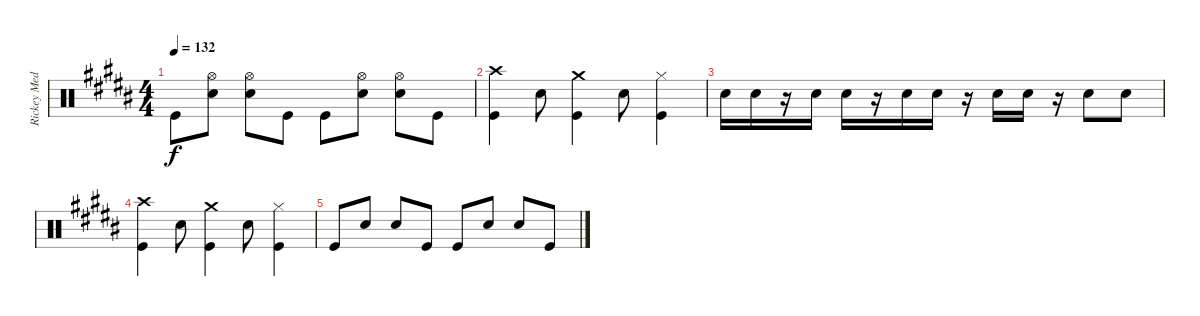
\track ("Rickey Medlocke Drums" "Rickey Med") {instrument percussion}
\staff {score}
\articulation defaults
\ts (4 4)
\tempo 132
\clef neutral
\ks b "Kick (hit)".8{dy f}
("Hi-Hat (open)" "Snare (hit) 2").8 ("Hi-Hat (open)" "Snare (hit) 2").8 "Kick (hit)".8 "Kick (hit)".8 ("Hi-Hat (open)" "Snare (hit) 2").8 ("Hi-Hat (open)" "Snare (hit) 2").8 "Kick (hit)".8 |
("Crash high (hit)" "Kick (hit)").4 "Snare (hit) 2".8 ("Crash medium (hit)" "Kick (hit)").4 "Snare (hit) 2".8 ("Hi-Hat (closed)" "Kick (hit)").4 |
"Snare (hit) 2".16 "Snare (hit) 2".16 r.16 "Snare (hit) 2".16 "Snare (hit) 2".16 r.16 "Snare (hit) 2".16 "Snare (hit) 2".16 r.16 "Snare (hit) 2".16 "Snare (hit) 2".16 r.16 "Snare (hit) 2".8 "Snare (hit) 2".8 |
("Crash high (hit)" "Kick (hit)").4 "Snare (hit) 2".8 ("Crash medium (hit)" "Kick (hit)").4 "Snare (hit) 2".8 ("Hi-Hat (closed)" "Kick (hit)").4 |
"Kick (hit)".8 "Snare (hit) 2".8 "Snare (hit) 2".8 "Kick (hit)".8 "Kick (hit)".8 "Snare (hit) 2".8 "Snare (hit) 2".8 "Kick (hit)".8
